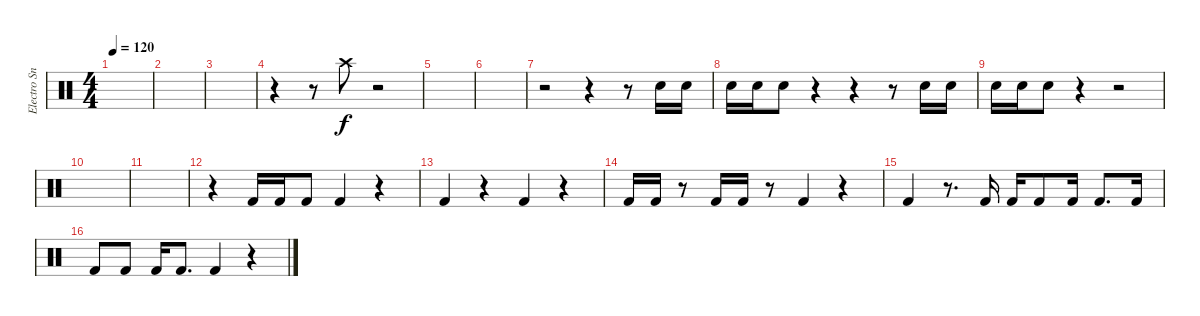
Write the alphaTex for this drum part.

\track ("Electro Snare" "Electro Sn") {instrument percussion}
\staff {score}
\articulation defaults
\ts (4 4)
\tempo 120
\clef neutral
\ks c
|
|
|
r.4 r.8 "Crash high (hit)".8 r.2 |
|
|
r.2 r.4 r.8 "Electric Snare (hit)".16 "Electric Snare (hit)".16 |
"Electric Snare (hit)".16 "Electric Snare (hit)".16 "Electric Snare (hit)".8 r.4 r.4 r.8 "Electric Snare (hit)".16 "Electric Snare (hit)".16 |
"Electric Snare (hit)".16 "Electric Snare (hit)".16 "Electric Snare (hit)".8 r.4 r.2 |
|
|
r.4 "Kick (hit) 2".16 "Kick (hit) 2".16 "Kick (hit) 2".8 "Kick (hit) 2".4 r.4 |
"Kick (hit) 2".4 r.4 "Kick (hit) 2".4 r.4 |
"Kick (hit) 2".16 "Kick (hit) 2".16 r.8 "Kick (hit) 2".16 "Kick (hit) 2".16 r.8 "Kick (hit) 2".4 r.4 |
"Kick (hit) 2".4 r.8{d} "Kick (hit) 2".16 "Kick (hit) 2".16 "Kick (hit) 2".8 "Kick (hit) 2".16 "Kick (hit) 2".8{d} "Kick (hit) 2".16 |
"Kick (hit) 2".8 "Kick (hit) 2".8 "Kick (hit) 2".16 "Kick (hit) 2".8{d} "Kick (hit) 2".4 r.4
